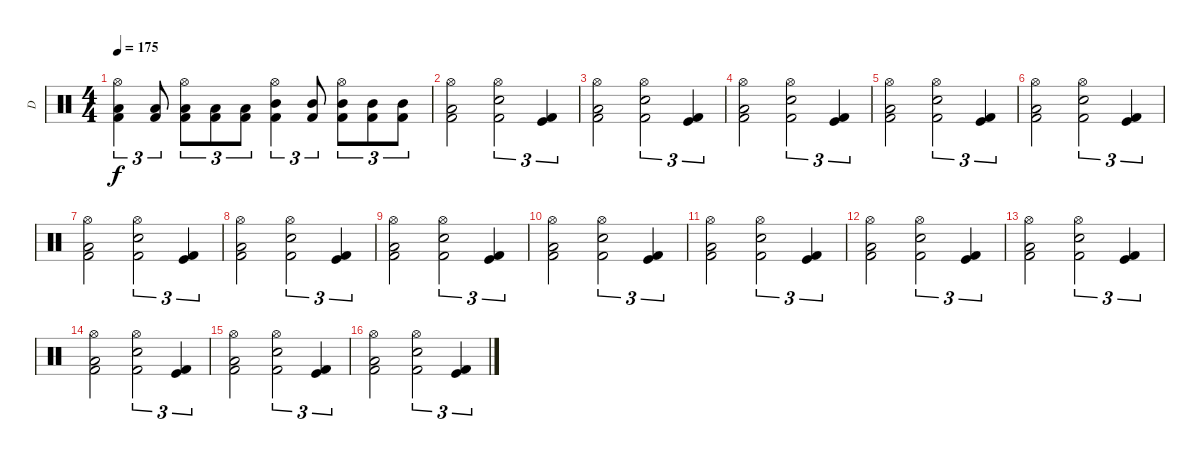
\track ("D" "D") {instrument percussion}
\staff {score}
\articulation defaults
\ts (4 4)
\tempo 175
\clef neutral
\ks c
("Hi-Hat (open)" "Low Tom (hit)" "Kick (hit) 2").4{tu (3 2) dy f} ("Low Tom (hit)" "Kick (hit) 2").8{tu (3 2)} ("Hi-Hat (open)" "Low Tom (hit)" "Kick (hit) 2").8{tu (3 2)} ("Low Tom (hit)" "Kick (hit) 2").8{tu (3 2)} ("Low Tom (hit)" "Kick (hit) 2").8{tu (3 2)} ("Hi-Hat (open)" "Mid Tom (hit)" "Kick (hit) 2").4{tu (3 2)} ("Mid Tom (hit)" "Kick (hit) 2").8{tu (3 2)} ("Hi-Hat (open)" "Mid Tom (hit)" "Kick (hit) 2").8{tu (3 2)} ("Mid Tom (hit)" "Kick (hit) 2").8{tu (3 2)} ("Mid Tom (hit)" "Kick (hit) 2").8{tu (3 2)} |
("Hi-Hat (open)" "Low Floor Tom (hit)" "Kick (hit) 2").2 ("Hi-Hat (open)" "Electric Snare (hit)" "Kick (hit) 2").2{tu (3 2)} ("Kick (hit)" "Kick (hit) 2").4{tu (3 2)} |
("Hi-Hat (open)" "Low Floor Tom (hit)" "Kick (hit) 2").2 ("Hi-Hat (open)" "Electric Snare (hit)" "Kick (hit) 2").2{tu (3 2)} ("Kick (hit)" "Kick (hit) 2").4{tu (3 2)} |
("Hi-Hat (open)" "Low Floor Tom (hit)" "Kick (hit) 2").2 ("Hi-Hat (open)" "Electric Snare (hit)" "Kick (hit) 2").2{tu (3 2)} ("Kick (hit)" "Kick (hit) 2").4{tu (3 2)} |
("Hi-Hat (open)" "Low Floor Tom (hit)" "Kick (hit) 2").2 ("Hi-Hat (open)" "Electric Snare (hit)" "Kick (hit) 2").2{tu (3 2)} ("Kick (hit)" "Kick (hit) 2").4{tu (3 2)} |
("Hi-Hat (open)" "Low Floor Tom (hit)" "Kick (hit) 2").2 ("Hi-Hat (open)" "Electric Snare (hit)" "Kick (hit) 2").2{tu (3 2)} ("Kick (hit)" "Kick (hit) 2").4{tu (3 2)} |
("Hi-Hat (open)" "Low Floor Tom (hit)" "Kick (hit) 2").2 ("Hi-Hat (open)" "Electric Snare (hit)" "Kick (hit) 2").2{tu (3 2)} ("Kick (hit)" "Kick (hit) 2").4{tu (3 2)} |
("Hi-Hat (open)" "Low Floor Tom (hit)" "Kick (hit) 2").2 ("Hi-Hat (open)" "Electric Snare (hit)" "Kick (hit) 2").2{tu (3 2)} ("Kick (hit)" "Kick (hit) 2").4{tu (3 2)} |
("Hi-Hat (open)" "Low Floor Tom (hit)" "Kick (hit) 2").2 ("Hi-Hat (open)" "Electric Snare (hit)" "Kick (hit) 2").2{tu (3 2)} ("Kick (hit)" "Kick (hit) 2").4{tu (3 2)} |
("Hi-Hat (open)" "Low Floor Tom (hit)" "Kick (hit) 2").2 ("Hi-Hat (open)" "Electric Snare (hit)" "Kick (hit) 2").2{tu (3 2)} ("Kick (hit)" "Kick (hit) 2").4{tu (3 2)} |
("Hi-Hat (open)" "Low Floor Tom (hit)" "Kick (hit) 2").2 ("Hi-Hat (open)" "Electric Snare (hit)" "Kick (hit) 2").2{tu (3 2)} ("Kick (hit)" "Kick (hit) 2").4{tu (3 2)} |
("Hi-Hat (open)" "Low Floor Tom (hit)" "Kick (hit) 2").2 ("Hi-Hat (open)" "Electric Snare (hit)" "Kick (hit) 2").2{tu (3 2)} ("Kick (hit)" "Kick (hit) 2").4{tu (3 2)} |
("Hi-Hat (open)" "Low Floor Tom (hit)" "Kick (hit) 2").2 ("Hi-Hat (open)" "Electric Snare (hit)" "Kick (hit) 2").2{tu (3 2)} ("Kick (hit)" "Kick (hit) 2").4{tu (3 2)} |
("Hi-Hat (open)" "Low Floor Tom (hit)" "Kick (hit) 2").2 ("Hi-Hat (open)" "Electric Snare (hit)" "Kick (hit) 2").2{tu (3 2)} ("Kick (hit)" "Kick (hit) 2").4{tu (3 2)} |
("Hi-Hat (open)" "Low Floor Tom (hit)" "Kick (hit) 2").2 ("Hi-Hat (open)" "Electric Snare (hit)" "Kick (hit) 2").2{tu (3 2)} ("Kick (hit)" "Kick (hit) 2").4{tu (3 2)} |
("Hi-Hat (open)" "Low Floor Tom (hit)" "Kick (hit) 2").2 ("Hi-Hat (open)" "Electric Snare (hit)" "Kick (hit) 2").2{tu (3 2)} ("Kick (hit)" "Kick (hit) 2").4{tu (3 2)}
